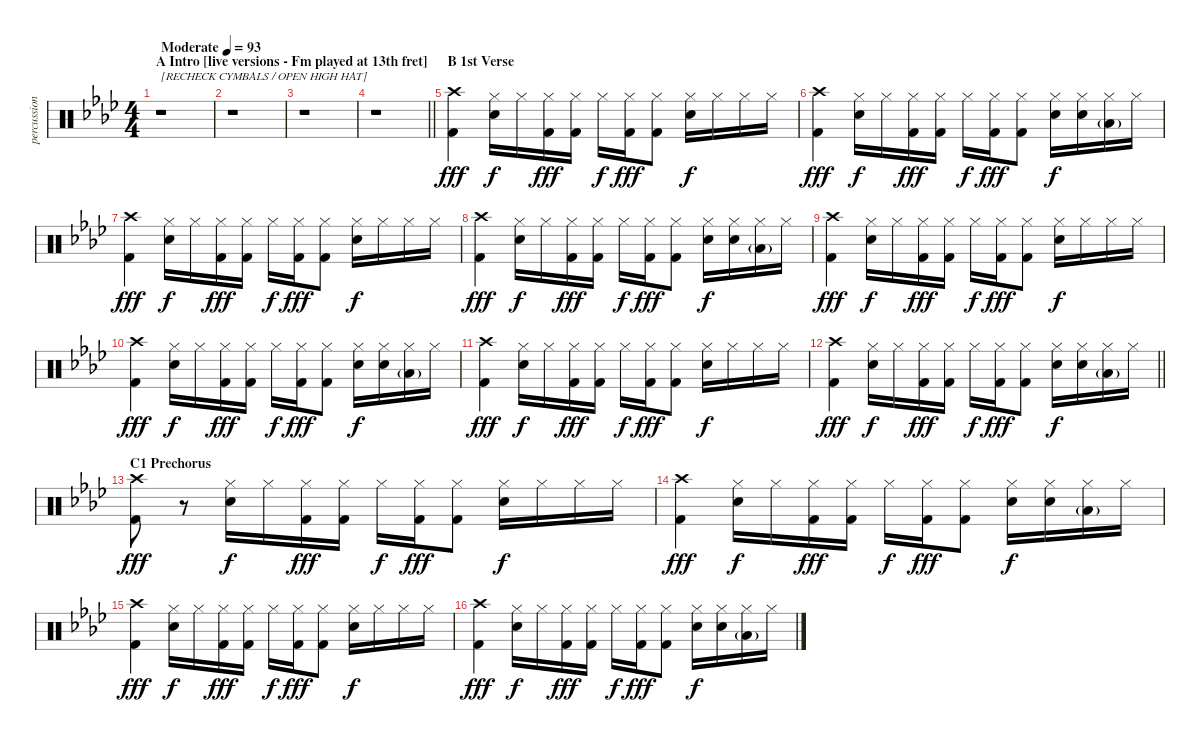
\track ("percussion" "percussion") {instrument percussion}
\staff {score}
\articulation defaults
\ts (4 4)
\section ("" "A Intro [live versions - Fm played at 13th fret]")
\tempo (93 "Moderate")
\clef neutral
\ks fminor
r.1{txt "[RECHECK CYMBALS / OPEN HIGH HAT]" dy fff} |
r.1 |
r.1 |
\barLineRight lightlight
r.1 |
\section ("" "B 1st Verse")
("Crash high (hit)" "Kick (hit) 2").4 ("Snare (hit) 2" "Hi-Hat (closed)").16{dy f} "Hi-Hat (closed)".16 ("Hi-Hat (closed)" "Kick (hit) 2").16{dy fff} ("Hi-Hat (closed)" "Kick (hit) 2").16 "Hi-Hat (closed)".16{dy f} ("Hi-Hat (closed)" "Kick (hit) 2").16{dy fff} ("Hi-Hat (closed)" "Kick (hit) 2").8 ("Snare (hit) 2" "Hi-Hat (closed)").16{dy f} "Hi-Hat (closed)".16 "Hi-Hat (closed)".16 "Hi-Hat (closed)".16 |
("Crash high (hit)" "Kick (hit) 2").4{dy fff} ("Snare (hit) 2" "Hi-Hat (closed)").16{dy f} "Hi-Hat (closed)".16 ("Hi-Hat (closed)" "Kick (hit) 2").16{dy fff} ("Hi-Hat (closed)" "Kick (hit) 2").16 "Hi-Hat (closed)".16{dy f} ("Hi-Hat (closed)" "Kick (hit) 2").16{dy fff} ("Hi-Hat (closed)" "Kick (hit) 2").8 ("Snare (hit) 2" "Hi-Hat (closed)").16{dy f} ("Snare (hit) 2" "Hi-Hat (closed)").16 ("Low Floor Tom (hit)"{g} "Hi-Hat (closed)").16 "Hi-Hat (closed)".16 |
("Crash high (hit)" "Kick (hit) 2").4{dy fff} ("Snare (hit) 2" "Hi-Hat (closed)").16{dy f} "Hi-Hat (closed)".16 ("Hi-Hat (closed)" "Kick (hit) 2").16{dy fff} ("Hi-Hat (closed)" "Kick (hit) 2").16 "Hi-Hat (closed)".16{dy f} ("Hi-Hat (closed)" "Kick (hit) 2").16{dy fff} ("Hi-Hat (closed)" "Kick (hit) 2").8 ("Snare (hit) 2" "Hi-Hat (closed)").16{dy f} "Hi-Hat (closed)".16 "Hi-Hat (closed)".16 "Hi-Hat (closed)".16 |
("Crash high (hit)" "Kick (hit) 2").4{dy fff} ("Snare (hit) 2" "Hi-Hat (closed)").16{dy f} "Hi-Hat (closed)".16 ("Hi-Hat (closed)" "Kick (hit) 2").16{dy fff} ("Hi-Hat (closed)" "Kick (hit) 2").16 "Hi-Hat (closed)".16{dy f} ("Hi-Hat (closed)" "Kick (hit) 2").16{dy fff} ("Hi-Hat (closed)" "Kick (hit) 2").8 ("Snare (hit) 2" "Hi-Hat (closed)").16{dy f} ("Snare (hit) 2" "Hi-Hat (closed)").16 ("Low Floor Tom (hit)"{g} "Hi-Hat (closed)").16 "Hi-Hat (closed)".16 |
("Crash high (hit)" "Kick (hit) 2").4{dy fff} ("Snare (hit) 2" "Hi-Hat (closed)").16{dy f} "Hi-Hat (closed)".16 ("Hi-Hat (closed)" "Kick (hit) 2").16{dy fff} ("Hi-Hat (closed)" "Kick (hit) 2").16 "Hi-Hat (closed)".16{dy f} ("Hi-Hat (closed)" "Kick (hit) 2").16{dy fff} ("Hi-Hat (closed)" "Kick (hit) 2").8 ("Snare (hit) 2" "Hi-Hat (closed)").16{dy f} "Hi-Hat (closed)".16 "Hi-Hat (closed)".16 "Hi-Hat (closed)".16 |
("Crash high (hit)" "Kick (hit) 2").4{dy fff} ("Snare (hit) 2" "Hi-Hat (closed)").16{dy f} "Hi-Hat (closed)".16 ("Hi-Hat (closed)" "Kick (hit) 2").16{dy fff} ("Hi-Hat (closed)" "Kick (hit) 2").16 "Hi-Hat (closed)".16{dy f} ("Hi-Hat (closed)" "Kick (hit) 2").16{dy fff} ("Hi-Hat (closed)" "Kick (hit) 2").8 ("Snare (hit) 2" "Hi-Hat (closed)").16{dy f} ("Snare (hit) 2" "Hi-Hat (closed)").16 ("Low Floor Tom (hit)"{g} "Hi-Hat (closed)").16 "Hi-Hat (closed)".16 |
("Crash high (hit)" "Kick (hit) 2").4{dy fff} ("Snare (hit) 2" "Hi-Hat (closed)").16{dy f} "Hi-Hat (closed)".16 ("Hi-Hat (closed)" "Kick (hit) 2").16{dy fff} ("Hi-Hat (closed)" "Kick (hit) 2").16 "Hi-Hat (closed)".16{dy f} ("Hi-Hat (closed)" "Kick (hit) 2").16{dy fff} ("Hi-Hat (closed)" "Kick (hit) 2").8 ("Snare (hit) 2" "Hi-Hat (closed)").16{dy f} "Hi-Hat (closed)".16 "Hi-Hat (closed)".16 "Hi-Hat (closed)".16 |
\barLineRight lightlight
("Crash high (hit)" "Kick (hit) 2").4{dy fff} ("Snare (hit) 2" "Hi-Hat (closed)").16{dy f} "Hi-Hat (closed)".16 ("Hi-Hat (closed)" "Kick (hit) 2").16{dy fff} ("Hi-Hat (closed)" "Kick (hit) 2").16 "Hi-Hat (closed)".16{dy f} ("Hi-Hat (closed)" "Kick (hit) 2").16{dy fff} ("Hi-Hat (closed)" "Kick (hit) 2").8 ("Snare (hit) 2" "Hi-Hat (closed)").16{dy f} ("Snare (hit) 2" "Hi-Hat (closed)").16 ("Low Floor Tom (hit)"{g} "Hi-Hat (closed)").16 "Hi-Hat (closed)".16 |
\section ("" "C1 Prechorus")
("Crash high (hit)" "Kick (hit) 2").8{dy fff} r.8 ("Snare (hit) 2" "Hi-Hat (closed)").16{dy f} "Hi-Hat (closed)".16 ("Hi-Hat (closed)" "Kick (hit) 2").16{dy fff} ("Hi-Hat (closed)" "Kick (hit) 2").16 "Hi-Hat (closed)".16{dy f} ("Hi-Hat (closed)" "Kick (hit) 2").16{dy fff} ("Hi-Hat (closed)" "Kick (hit) 2").8 ("Snare (hit) 2" "Hi-Hat (closed)").16{dy f} "Hi-Hat (closed)".16 "Hi-Hat (closed)".16 "Hi-Hat (closed)".16 |
("Crash high (hit)" "Kick (hit) 2").4{dy fff} ("Snare (hit) 2" "Hi-Hat (closed)").16{dy f} "Hi-Hat (closed)".16 ("Hi-Hat (closed)" "Kick (hit) 2").16{dy fff} ("Hi-Hat (closed)" "Kick (hit) 2").16 "Hi-Hat (closed)".16{dy f} ("Hi-Hat (closed)" "Kick (hit) 2").16{dy fff} ("Hi-Hat (closed)" "Kick (hit) 2").8 ("Snare (hit) 2" "Hi-Hat (closed)").16{dy f} ("Snare (hit) 2" "Hi-Hat (closed)").16 ("Low Floor Tom (hit)"{g} "Hi-Hat (closed)").16 "Hi-Hat (closed)".16 |
("Crash high (hit)" "Kick (hit) 2").4{dy fff} ("Snare (hit) 2" "Hi-Hat (closed)").16{dy f} "Hi-Hat (closed)".16 ("Hi-Hat (closed)" "Kick (hit) 2").16{dy fff} ("Hi-Hat (closed)" "Kick (hit) 2").16 "Hi-Hat (closed)".16{dy f} ("Hi-Hat (closed)" "Kick (hit) 2").16{dy fff} ("Hi-Hat (closed)" "Kick (hit) 2").8 ("Snare (hit) 2" "Hi-Hat (closed)").16{dy f} "Hi-Hat (closed)".16 "Hi-Hat (closed)".16 "Hi-Hat (closed)".16 |
("Crash high (hit)" "Kick (hit) 2").4{dy fff} ("Snare (hit) 2" "Hi-Hat (closed)").16{dy f} "Hi-Hat (closed)".16 ("Hi-Hat (closed)" "Kick (hit) 2").16{dy fff} ("Hi-Hat (closed)" "Kick (hit) 2").16 "Hi-Hat (closed)".16{dy f} ("Hi-Hat (closed)" "Kick (hit) 2").16{dy fff} ("Hi-Hat (closed)" "Kick (hit) 2").8 ("Snare (hit) 2" "Hi-Hat (closed)").16{dy f} ("Snare (hit) 2" "Hi-Hat (closed)").16 ("Low Floor Tom (hit)"{g} "Hi-Hat (closed)").16 "Hi-Hat (closed)".16
